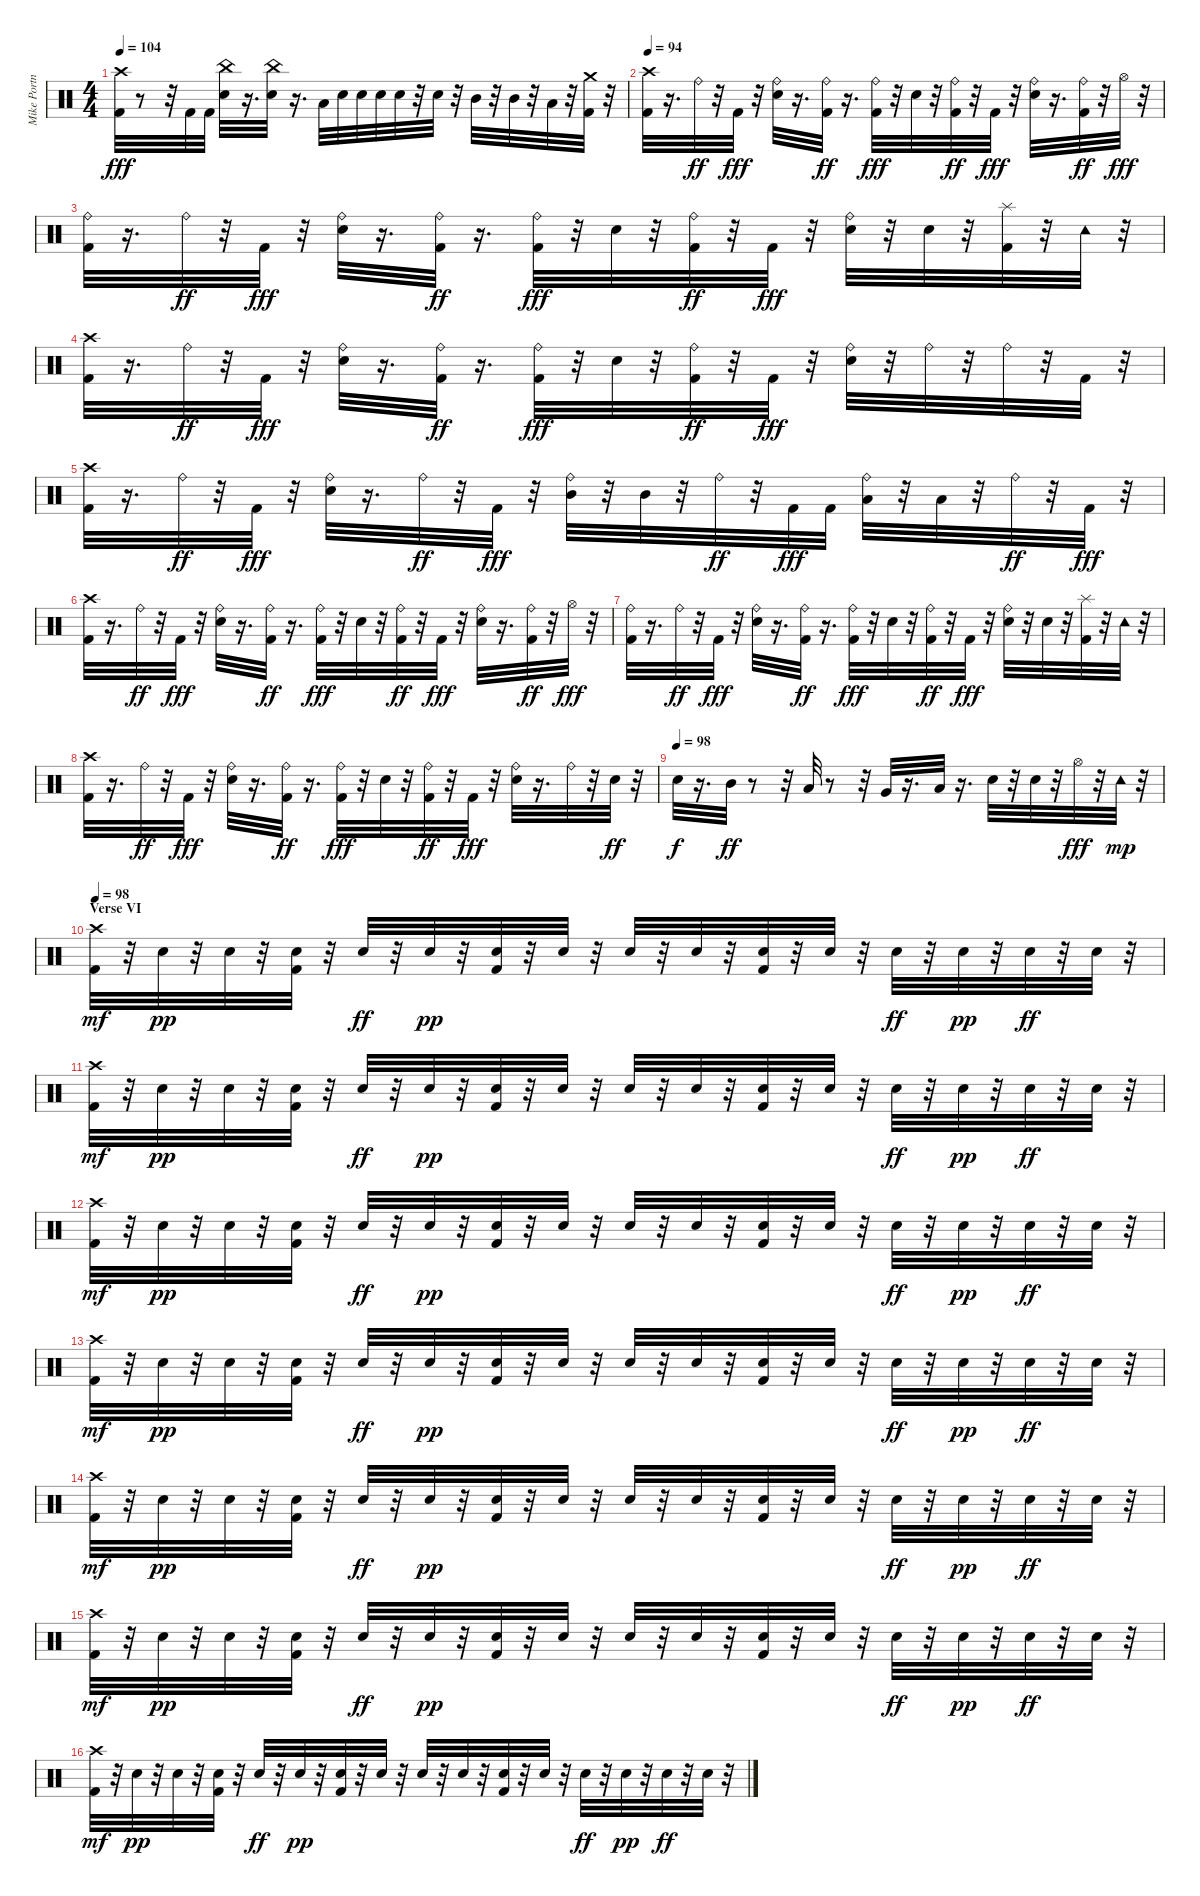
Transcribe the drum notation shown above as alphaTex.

\track ("Mike Portnoy" "Mike Portn") {instrument percussion}
\staff {score}
\articulation defaults
\ts (4 4)
\tempo 104
\clef neutral
\ks c
("Kick (hit) 2" "Crash high (hit)").32{dy fff} r.8 r.32 "Kick (hit) 2".32 "Kick (hit) 2".32 ("Snare (hit) 2" "China (hit)").32 r.16{d} ("Snare (hit) 2" "China (hit)").32 r.16{d} "Low Tom (hit)".32 "Snare (hit) 2".32 "Snare (hit) 2".32 "Snare (hit) 2".32 "Snare (hit) 2".32 r.32 "Snare (hit) 2".32 r.32 "Mid Tom (hit)".32 r.32 "Mid Tom (hit)".32 r.32 "Low Tom (hit)".32 r.32 ("Kick (hit) 2" "Crash medium (hit)").32 r.32 |
\tempo 94
("Kick (hit) 2" "Crash high (hit)").32 r.16{d} "Ride (bell)".32{dy ff} r.32 "Kick (hit) 2".32{dy fff} r.32 ("Ride (bell)" "Snare (hit) 2").32 r.16{d} ("Kick (hit) 2" "Ride (bell)").32{dy ff} r.16{d} ("Kick (hit) 2" "Ride (bell)").32{dy fff} r.32 "Snare (hit) 2".32 r.32 ("Kick (hit) 2" "Ride (bell)").32{dy ff} r.32 "Kick (hit) 2".32{dy fff} r.32 ("Ride (bell)" "Snare (hit) 2").32 r.16{d} ("Kick (hit) 2" "Ride (bell)").32{dy ff} r.32 "Hi-Hat (open)".32{dy fff} r.32 |
("Kick (hit) 2" "Ride (bell)").32 r.16{d} "Ride (bell)".32{dy ff} r.32 "Kick (hit) 2".32{dy fff} r.32 ("Ride (bell)" "Snare (hit) 2").32 r.16{d} ("Kick (hit) 2" "Ride (bell)").32{dy ff} r.16{d} ("Kick (hit) 2" "Ride (bell)").32{dy fff} r.32 "Snare (hit) 2".32 r.32 ("Kick (hit) 2" "Ride (bell)").32{dy ff} r.32 "Kick (hit) 2".32{dy fff} r.32 ("Ride (bell)" "Snare (hit) 2").32 r.32 "Snare (hit) 2".32 r.32 ("Kick (hit) 2" "Splash (hit)").32 r.32 "Tambourine (hit)".32 r.32 |
("Kick (hit) 2" "Crash high (hit)").32 r.16{d} "Ride (bell)".32{dy ff} r.32 "Kick (hit) 2".32{dy fff} r.32 ("Ride (bell)" "Snare (hit) 2").32 r.16{d} ("Kick (hit) 2" "Ride (bell)").32{dy ff} r.16{d} ("Kick (hit) 2" "Ride (bell)").32{dy fff} r.32 "Snare (hit) 2".32 r.32 ("Kick (hit) 2" "Ride (bell)").32{dy ff} r.32 "Kick (hit) 2".32{dy fff} r.32 ("Ride (bell)" "Snare (hit) 2").32 r.32 "Ride (bell)".32 r.32 "Ride (bell)".32 r.32 "Kick (hit) 2".32 r.32 |
("Kick (hit) 2" "Crash high (hit)").32 r.16{d} "Ride (bell)".32{dy ff} r.32 "Kick (hit) 2".32{dy fff} r.32 ("Ride (bell)" "Snare (hit) 2").32 r.16{d} "Ride (bell)".32{dy ff} r.32 "Kick (hit) 2".32{dy fff} r.32 ("Ride (bell)" "Mid Tom (hit)").32 r.32 "Mid Tom (hit)".32 r.32 "Ride (bell)".32{dy ff} r.32 "Kick (hit) 2".32{dy fff} "Kick (hit) 2".32 ("Ride (bell)" "Low Tom (hit)").32 r.32 "Low Tom (hit)".32 r.32 "Ride (bell)".32{dy ff} r.32 "Kick (hit) 2".32{dy fff} r.32 |
("Kick (hit) 2" "Crash high (hit)").32 r.16{d} "Ride (bell)".32{dy ff} r.32 "Kick (hit) 2".32{dy fff} r.32 ("Ride (bell)" "Snare (hit) 2").32 r.16{d} ("Kick (hit) 2" "Ride (bell)").32{dy ff} r.16{d} ("Kick (hit) 2" "Ride (bell)").32{dy fff} r.32 "Snare (hit) 2".32 r.32 ("Kick (hit) 2" "Ride (bell)").32{dy ff} r.32 "Kick (hit) 2".32{dy fff} r.32 ("Ride (bell)" "Snare (hit) 2").32 r.16{d} ("Kick (hit) 2" "Ride (bell)").32{dy ff} r.32 "Hi-Hat (open)".32{dy fff} r.32 |
("Kick (hit) 2" "Ride (bell)").32 r.16{d} "Ride (bell)".32{dy ff} r.32 "Kick (hit) 2".32{dy fff} r.32 ("Ride (bell)" "Snare (hit) 2").32 r.16{d} ("Kick (hit) 2" "Ride (bell)").32{dy ff} r.16{d} ("Kick (hit) 2" "Ride (bell)").32{dy fff} r.32 "Snare (hit) 2".32 r.32 ("Kick (hit) 2" "Ride (bell)").32{dy ff} r.32 "Kick (hit) 2".32{dy fff} r.32 ("Ride (bell)" "Snare (hit) 2").32 r.32 "Snare (hit) 2".32 r.32 ("Kick (hit) 2" "Splash (hit)").32 r.32 "Tambourine (hit)".32 r.32 |
("Kick (hit) 2" "Crash high (hit)").32 r.16{d} "Ride (bell)".32{dy ff} r.32 "Kick (hit) 2".32{dy fff} r.32 ("Ride (bell)" "Snare (hit) 2").32 r.16{d} ("Kick (hit) 2" "Ride (bell)").32{dy ff} r.16{d} ("Kick (hit) 2" "Ride (bell)").32{dy fff} r.32 "Snare (hit) 2".32 r.32 ("Kick (hit) 2" "Ride (bell)").32{dy ff} r.32 "Kick (hit) 2".32{dy fff} r.32 ("Ride (bell)" "Snare (hit) 2").32 r.16{d} "Ride (bell)".32 r.32 "Snare (hit) 2".32{dy ff} r.32 |
\tempo (98)
"Snare (hit) 2".32{dy f} r.16{d} "Mid Tom (hit)".32{dy ff} r.8 r.32 "Low Tom (hit)".32 r.8 r.32 "Very Low Tom (hit)".32 r.16{d} "Low Floor Tom (hit)".32 r.16{d} "Snare (hit) 2".32 r.32 "Snare (hit) 2".32 r.32 "Hi-Hat (open)".32{dy fff} r.32 "Tambourine (hit)".32{dy mp} r.32 |
\section ("" "Verse VI")
\tempo 98
("Kick (hit) 2" "Crash high (hit)").32{dy mf} r.32 "Snare (hit) 2".32{dy pp} r.32 "Snare (hit) 2".32 r.32 ("Kick (hit) 2" "Snare (hit) 2").32 r.32 "Snare (hit) 2".32{dy ff} r.32 "Snare (hit) 2".32{dy pp} r.32 ("Kick (hit) 2" "Snare (hit) 2").32 r.32 "Snare (hit) 2".32 r.32 "Snare (hit) 2".32 r.32 "Snare (hit) 2".32 r.32 ("Kick (hit) 2" "Snare (hit) 2").32 r.32 "Snare (hit) 2".32 r.32 "Snare (hit) 2".32{dy ff} r.32 "Snare (hit) 2".32{dy pp} r.32 "Snare (hit) 2".32{dy ff} r.32 "Snare (hit) 2".32 r.32 |
("Kick (hit) 2" "Crash high (hit)").32{dy mf} r.32 "Snare (hit) 2".32{dy pp} r.32 "Snare (hit) 2".32 r.32 ("Kick (hit) 2" "Snare (hit) 2").32 r.32 "Snare (hit) 2".32{dy ff} r.32 "Snare (hit) 2".32{dy pp} r.32 ("Kick (hit) 2" "Snare (hit) 2").32 r.32 "Snare (hit) 2".32 r.32 "Snare (hit) 2".32 r.32 "Snare (hit) 2".32 r.32 ("Kick (hit) 2" "Snare (hit) 2").32 r.32 "Snare (hit) 2".32 r.32 "Snare (hit) 2".32{dy ff} r.32 "Snare (hit) 2".32{dy pp} r.32 "Snare (hit) 2".32{dy ff} r.32 "Snare (hit) 2".32 r.32 |
("Kick (hit) 2" "Crash high (hit)").32{dy mf} r.32 "Snare (hit) 2".32{dy pp} r.32 "Snare (hit) 2".32 r.32 ("Kick (hit) 2" "Snare (hit) 2").32 r.32 "Snare (hit) 2".32{dy ff} r.32 "Snare (hit) 2".32{dy pp} r.32 ("Kick (hit) 2" "Snare (hit) 2").32 r.32 "Snare (hit) 2".32 r.32 "Snare (hit) 2".32 r.32 "Snare (hit) 2".32 r.32 ("Kick (hit) 2" "Snare (hit) 2").32 r.32 "Snare (hit) 2".32 r.32 "Snare (hit) 2".32{dy ff} r.32 "Snare (hit) 2".32{dy pp} r.32 "Snare (hit) 2".32{dy ff} r.32 "Snare (hit) 2".32 r.32 |
("Kick (hit) 2" "Crash high (hit)").32{dy mf} r.32 "Snare (hit) 2".32{dy pp} r.32 "Snare (hit) 2".32 r.32 ("Kick (hit) 2" "Snare (hit) 2").32 r.32 "Snare (hit) 2".32{dy ff} r.32 "Snare (hit) 2".32{dy pp} r.32 ("Kick (hit) 2" "Snare (hit) 2").32 r.32 "Snare (hit) 2".32 r.32 "Snare (hit) 2".32 r.32 "Snare (hit) 2".32 r.32 ("Kick (hit) 2" "Snare (hit) 2").32 r.32 "Snare (hit) 2".32 r.32 "Snare (hit) 2".32{dy ff} r.32 "Snare (hit) 2".32{dy pp} r.32 "Snare (hit) 2".32{dy ff} r.32 "Snare (hit) 2".32 r.32 |
("Kick (hit) 2" "Crash high (hit)").32{dy mf} r.32 "Snare (hit) 2".32{dy pp} r.32 "Snare (hit) 2".32 r.32 ("Kick (hit) 2" "Snare (hit) 2").32 r.32 "Snare (hit) 2".32{dy ff} r.32 "Snare (hit) 2".32{dy pp} r.32 ("Kick (hit) 2" "Snare (hit) 2").32 r.32 "Snare (hit) 2".32 r.32 "Snare (hit) 2".32 r.32 "Snare (hit) 2".32 r.32 ("Kick (hit) 2" "Snare (hit) 2").32 r.32 "Snare (hit) 2".32 r.32 "Snare (hit) 2".32{dy ff} r.32 "Snare (hit) 2".32{dy pp} r.32 "Snare (hit) 2".32{dy ff} r.32 "Snare (hit) 2".32 r.32 |
("Kick (hit) 2" "Crash high (hit)").32{dy mf} r.32 "Snare (hit) 2".32{dy pp} r.32 "Snare (hit) 2".32 r.32 ("Kick (hit) 2" "Snare (hit) 2").32 r.32 "Snare (hit) 2".32{dy ff} r.32 "Snare (hit) 2".32{dy pp} r.32 ("Kick (hit) 2" "Snare (hit) 2").32 r.32 "Snare (hit) 2".32 r.32 "Snare (hit) 2".32 r.32 "Snare (hit) 2".32 r.32 ("Kick (hit) 2" "Snare (hit) 2").32 r.32 "Snare (hit) 2".32 r.32 "Snare (hit) 2".32{dy ff} r.32 "Snare (hit) 2".32{dy pp} r.32 "Snare (hit) 2".32{dy ff} r.32 "Snare (hit) 2".32 r.32 |
("Kick (hit) 2" "Crash high (hit)").32{dy mf} r.32 "Snare (hit) 2".32{dy pp} r.32 "Snare (hit) 2".32 r.32 ("Kick (hit) 2" "Snare (hit) 2").32 r.32 "Snare (hit) 2".32{dy ff} r.32 "Snare (hit) 2".32{dy pp} r.32 ("Kick (hit) 2" "Snare (hit) 2").32 r.32 "Snare (hit) 2".32 r.32 "Snare (hit) 2".32 r.32 "Snare (hit) 2".32 r.32 ("Kick (hit) 2" "Snare (hit) 2").32 r.32 "Snare (hit) 2".32 r.32 "Snare (hit) 2".32{dy ff} r.32 "Snare (hit) 2".32{dy pp} r.32 "Snare (hit) 2".32{dy ff} r.32 "Snare (hit) 2".32 r.32
